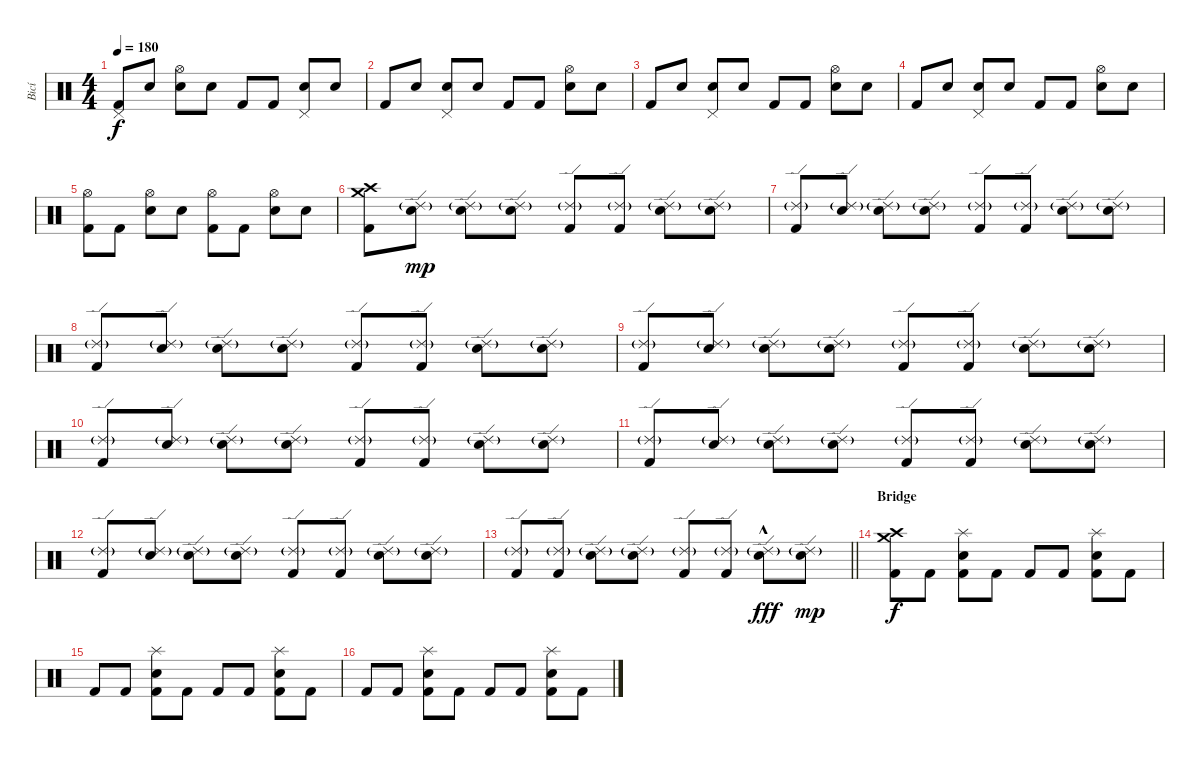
\track ("Bicí" "Bicí") {instrument percussion}
\staff {score}
\articulation defaults
\ts (4 4)
\tempo 180
\clef neutral
\ks c
("Pedal Hi-Hat (hit)" "Kick (hit) 2").8{dy f} "Snare (hit)".8 ("Hi-Hat (open)" "Electric Snare (hit)").8 "Snare (hit)".8 "Kick (hit) 2".8 "Kick (hit) 2".8 ("Pedal Hi-Hat (hit)" "Electric Snare (hit)").8 "Snare (hit)".8 |
"Kick (hit) 2".8 "Snare (hit)".8 ("Pedal Hi-Hat (hit)" "Electric Snare (hit)").8 "Snare (hit)".8 "Kick (hit) 2".8 "Kick (hit) 2".8 ("Hi-Hat (open)" "Electric Snare (hit)").8 "Snare (hit)".8 |
"Kick (hit) 2".8 "Snare (hit)".8 ("Pedal Hi-Hat (hit)" "Electric Snare (hit)").8 "Snare (hit)".8 "Kick (hit) 2".8 "Kick (hit) 2".8 ("Hi-Hat (open)" "Electric Snare (hit)").8 "Snare (hit)".8 |
"Kick (hit) 2".8 "Snare (hit)".8 ("Pedal Hi-Hat (hit)" "Electric Snare (hit)").8 "Snare (hit)".8 "Kick (hit) 2".8 "Kick (hit) 2".8 ("Hi-Hat (open)" "Electric Snare (hit)").8 "Snare (hit)".8 |
("Hi-Hat (open)" "Kick (hit) 2").8 "Kick (hit) 2".8 ("Hi-Hat (open)" "Electric Snare (hit)").8 "Snare (hit)".8 ("Hi-Hat (open)" "Kick (hit) 2").8 "Kick (hit) 2".8 ("Hi-Hat (open)" "Electric Snare (hit)").8 "Snare (hit)".8 |
("Crash medium (hit)" "Crash high (hit)" "Kick (hit) 2").8 ("Ride (edge) 2"{g} "Snare (hit)").8{dy mp} ("Ride (edge) 2"{g} "Electric Snare (hit)").8 ("Ride (edge) 2"{g} "Snare (hit)").8 ("Ride (edge) 2"{g} "Kick (hit) 2").8 ("Ride (edge) 2"{g} "Kick (hit) 2").8 ("Ride (edge) 2"{g} "Electric Snare (hit)").8 ("Ride (edge) 2"{g} "Snare (hit)").8 |
("Ride (edge) 2"{g} "Kick (hit) 2").8 ("Ride (edge) 2"{g} "Snare (hit)").8 ("Ride (edge) 2"{g} "Electric Snare (hit)").8 ("Ride (edge) 2"{g} "Snare (hit)").8 ("Ride (edge) 2"{g} "Kick (hit) 2").8 ("Ride (edge) 2"{g} "Kick (hit) 2").8 ("Ride (edge) 2"{g} "Electric Snare (hit)").8 ("Ride (edge) 2"{g} "Snare (hit)").8 |
("Ride (edge) 2"{g} "Kick (hit) 2").8 ("Ride (edge) 2"{g} "Snare (hit)").8 ("Ride (edge) 2"{g} "Electric Snare (hit)").8 ("Ride (edge) 2"{g} "Snare (hit)").8 ("Ride (edge) 2"{g} "Kick (hit) 2").8 ("Ride (edge) 2"{g} "Kick (hit) 2").8 ("Ride (edge) 2"{g} "Electric Snare (hit)").8 ("Ride (edge) 2"{g} "Snare (hit)").8 |
("Ride (edge) 2"{g} "Kick (hit) 2").8 ("Ride (edge) 2"{g} "Snare (hit)").8 ("Ride (edge) 2"{g} "Electric Snare (hit)").8 ("Ride (edge) 2"{g} "Snare (hit)").8 ("Ride (edge) 2"{g} "Kick (hit) 2").8 ("Ride (edge) 2"{g} "Kick (hit) 2").8 ("Ride (edge) 2"{g} "Electric Snare (hit)").8 ("Ride (edge) 2"{g} "Snare (hit)").8 |
("Ride (edge) 2"{g} "Kick (hit) 2").8 ("Ride (edge) 2"{g} "Snare (hit)").8 ("Ride (edge) 2"{g} "Electric Snare (hit)").8 ("Ride (edge) 2"{g} "Snare (hit)").8 ("Ride (edge) 2"{g} "Kick (hit) 2").8 ("Ride (edge) 2"{g} "Kick (hit) 2").8 ("Ride (edge) 2"{g} "Electric Snare (hit)").8 ("Ride (edge) 2"{g} "Snare (hit)").8 |
("Ride (edge) 2"{g} "Kick (hit) 2").8 ("Ride (edge) 2"{g} "Snare (hit)").8 ("Ride (edge) 2"{g} "Electric Snare (hit)").8 ("Ride (edge) 2"{g} "Snare (hit)").8 ("Ride (edge) 2"{g} "Kick (hit) 2").8 ("Ride (edge) 2"{g} "Kick (hit) 2").8 ("Ride (edge) 2"{g} "Electric Snare (hit)").8 ("Ride (edge) 2"{g} "Snare (hit)").8 |
("Ride (edge) 2"{g} "Kick (hit) 2").8 ("Ride (edge) 2"{g} "Snare (hit)").8 ("Ride (edge) 2"{g} "Electric Snare (hit)").8 ("Ride (edge) 2"{g} "Snare (hit)").8 ("Ride (edge) 2"{g} "Kick (hit) 2").8 ("Ride (edge) 2"{g} "Kick (hit) 2").8 ("Ride (edge) 2"{g} "Electric Snare (hit)").8 ("Ride (edge) 2"{g} "Snare (hit)").8 |
\barLineRight lightlight
("Ride (edge) 2"{g} "Kick (hit) 2").8 ("Ride (edge) 2"{g} "Kick (hit) 2").8 ("Ride (edge) 2"{g} "Electric Snare (hit)").8 ("Ride (edge) 2"{g} "Snare (hit)").8 ("Ride (edge) 2"{g} "Kick (hit) 2").8 ("Ride (edge) 2"{g} "Kick (hit) 2").8 ("Ride (edge) 2"{g} "Electric Snare (hit)"{hac}).8{dy fff} ("Ride (edge) 2"{g} "Snare (hit)").8{dy mp} |
\section ("" "Bridge")
("Crash high (hit)" "Crash medium (hit)" "Kick (hit) 2").8{dy f} "Kick (hit) 2".8 ("Splash (hit)" "Electric Snare (hit)" "Kick (hit) 2").8 "Kick (hit) 2".8 "Kick (hit) 2".8 "Kick (hit) 2".8 ("Splash (hit)" "Electric Snare (hit)" "Kick (hit) 2").8 "Kick (hit) 2".8 |
"Kick (hit) 2".8 "Kick (hit) 2".8 ("Splash (hit)" "Electric Snare (hit)" "Kick (hit) 2").8 "Kick (hit) 2".8 "Kick (hit) 2".8 "Kick (hit) 2".8 ("Splash (hit)" "Electric Snare (hit)" "Kick (hit) 2").8 "Kick (hit) 2".8 |
"Kick (hit) 2".8 "Kick (hit) 2".8 ("Splash (hit)" "Electric Snare (hit)" "Kick (hit) 2").8 "Kick (hit) 2".8 "Kick (hit) 2".8 "Kick (hit) 2".8 ("Splash (hit)" "Electric Snare (hit)" "Kick (hit) 2").8 "Kick (hit) 2".8
